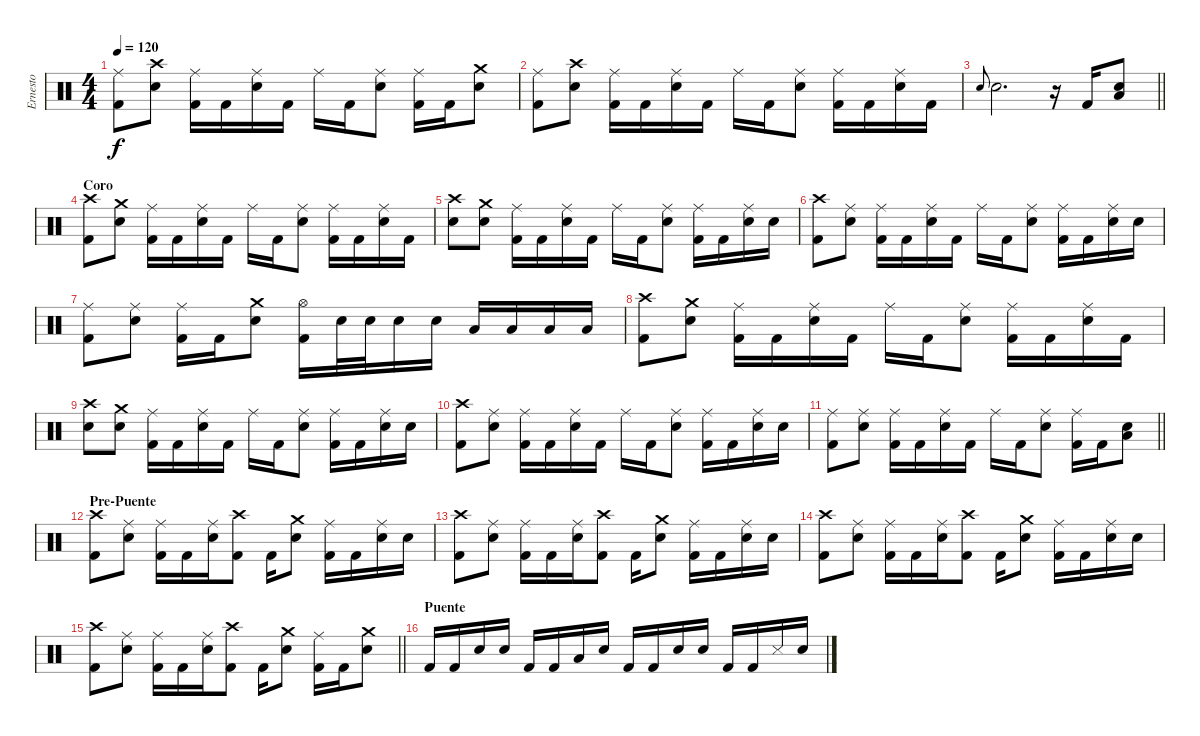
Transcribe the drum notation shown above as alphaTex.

\track ("Ernesto" "Ernesto") {instrument percussion}
\staff
\articulation defaults
\ts (4 4)
\tempo 120
\clef neutral
\ks c
("Ride (middle)" "Kick (hit) 2").8{dy f} ("Crash high (hit)" "Electric Snare (hit)").8 ("Ride (middle)" "Kick (hit) 2").16 "Kick (hit) 2".16 ("Ride (middle)" "Electric Snare (hit)").16 "Kick (hit) 2".16 "Ride (middle)".16 "Kick (hit) 2".16 ("Ride (middle)" "Electric Snare (hit)").8 ("Ride (middle)" "Kick (hit) 2").16 "Kick (hit) 2".16 ("Crash medium (hit)" "Electric Snare (hit)").8 |
("Ride (middle)" "Kick (hit) 2").8 ("Crash high (hit)" "Electric Snare (hit)").8 ("Ride (middle)" "Kick (hit) 2").16 "Kick (hit) 2".16 ("Ride (middle)" "Electric Snare (hit)").16 "Kick (hit) 2".16 "Ride (middle)".16 "Kick (hit) 2".16 ("Ride (middle)" "Electric Snare (hit)").8 ("Ride (middle)" "Kick (hit) 2").16 "Kick (hit) 2".16 ("Ride (middle)" "Electric Snare (hit)").16 "Kick (hit) 2".16 |
\barLineRight lightlight "Electric Snare (hit)".8{gr onbeat} "Electric Snare (hit)".2{d}
r.16 "Kick (hit) 2".16 ("Electric Snare (hit)" "Low Floor Tom (hit)").8 |
\section ("" "Coro")
("Crash high (hit)" "Kick (hit) 2").8 ("Crash medium (hit)" "Electric Snare (hit)").8 ("Ride (middle)" "Kick (hit) 2").16 "Kick (hit) 2".16 ("Ride (middle)" "Electric Snare (hit)").16 "Kick (hit) 2".16 "Ride (middle)".16 "Kick (hit) 2".16 ("Ride (middle)" "Electric Snare (hit)").8 ("Ride (middle)" "Kick (hit) 2").16 "Kick (hit) 2".16 ("Ride (middle)" "Electric Snare (hit)").16 "Kick (hit) 2".16 |
("Crash high (hit)" "Electric Snare (hit)").8 ("Crash medium (hit)" "Electric Snare (hit)").8 ("Ride (middle)" "Kick (hit) 2").16 "Kick (hit) 2".16 ("Ride (middle)" "Electric Snare (hit)").16 "Kick (hit) 2".16 "Ride (middle)".16 "Kick (hit) 2".16 ("Ride (middle)" "Electric Snare (hit)").8 ("Ride (middle)" "Kick (hit) 2").16 "Kick (hit) 2".16 ("Ride (middle)" "Electric Snare (hit)").16 "Electric Snare (hit)".16 |
("Crash high (hit)" "Kick (hit) 2").8 ("Ride (middle)" "Electric Snare (hit)").8 ("Ride (middle)" "Kick (hit) 2").16 "Kick (hit) 2".16 ("Ride (middle)" "Electric Snare (hit)").16 "Kick (hit) 2".16 "Ride (middle)".16 "Kick (hit) 2".16 ("Ride (middle)" "Electric Snare (hit)").8 ("Ride (middle)" "Kick (hit) 2").16 "Kick (hit) 2".16 ("Ride (middle)" "Electric Snare (hit)").16 "Electric Snare (hit)".16 |
("Ride (middle)" "Kick (hit) 2").8 ("Ride (middle)" "Electric Snare (hit)").8 ("Ride (middle)" "Kick (hit) 2").16 "Kick (hit) 2".16 ("Crash medium (hit)" "Electric Snare (hit)").8 ("Hi-Hat (open)" "Kick (hit) 2").16 "Electric Snare (hit)".32 "Electric Snare (hit)".32 "Electric Snare (hit)".16 "Electric Snare (hit)".16 "Low Tom (hit)".16 "Low Tom (hit)".16 "Low Floor Tom (hit)".16 "Low Floor Tom (hit)".16 |
("Crash high (hit)" "Kick (hit) 2").8 ("Crash medium (hit)" "Electric Snare (hit)").8 ("Ride (middle)" "Kick (hit) 2").16 "Kick (hit) 2".16 ("Ride (middle)" "Electric Snare (hit)").16 "Kick (hit) 2".16 "Ride (middle)".16 "Kick (hit) 2".16 ("Ride (middle)" "Electric Snare (hit)").8 ("Ride (middle)" "Kick (hit) 2").16 "Kick (hit) 2".16 ("Ride (middle)" "Electric Snare (hit)").16 "Kick (hit) 2".16 |
("Crash high (hit)" "Electric Snare (hit)").8 ("Crash medium (hit)" "Electric Snare (hit)").8 ("Ride (middle)" "Kick (hit) 2").16 "Kick (hit) 2".16 ("Ride (middle)" "Electric Snare (hit)").16 "Kick (hit) 2".16 "Ride (middle)".16 "Kick (hit) 2".16 ("Ride (middle)" "Electric Snare (hit)").8 ("Ride (middle)" "Kick (hit) 2").16 "Kick (hit) 2".16 ("Ride (middle)" "Electric Snare (hit)").16 "Electric Snare (hit)".16 |
("Crash high (hit)" "Kick (hit) 2").8 ("Ride (middle)" "Electric Snare (hit)").8 ("Ride (middle)" "Kick (hit) 2").16 "Kick (hit) 2".16 ("Ride (middle)" "Electric Snare (hit)").16 "Kick (hit) 2".16 "Ride (middle)".16 "Kick (hit) 2".16 ("Ride (middle)" "Electric Snare (hit)").8 ("Ride (middle)" "Kick (hit) 2").16 "Kick (hit) 2".16 ("Ride (middle)" "Electric Snare (hit)").16 "Electric Snare (hit)".16 |
\barLineRight lightlight
("Ride (middle)" "Kick (hit) 2").8 ("Ride (middle)" "Electric Snare (hit)").8 ("Ride (middle)" "Kick (hit) 2").16 "Kick (hit) 2".16 ("Ride (middle)" "Electric Snare (hit)").16 "Kick (hit) 2".16 "Ride (middle)".16 "Kick (hit) 2".16 ("Ride (middle)" "Electric Snare (hit)").8 ("Ride (middle)" "Kick (hit) 2").16 "Kick (hit) 2".16 ("Electric Snare (hit)" "Low Floor Tom (hit)").8 |
\section ("" "Pre-Puente")
("Crash high (hit)" "Kick (hit) 2").8 ("Ride (middle)" "Electric Snare (hit)").8 ("Ride (middle)" "Kick (hit) 2").16 "Kick (hit) 2".16 ("Ride (middle)" "Electric Snare (hit)").16 ("Crash high (hit)" "Kick (hit) 2").8 "Kick (hit) 2".16 ("Crash medium (hit)" "Electric Snare (hit)").8 ("Ride (middle)" "Kick (hit) 2").16 "Kick (hit) 2".16 ("Ride (middle)" "Electric Snare (hit)").16 "Electric Snare (hit)".16 |
("Crash high (hit)" "Kick (hit) 2").8 ("Ride (middle)" "Electric Snare (hit)").8 ("Ride (middle)" "Kick (hit) 2").16 "Kick (hit) 2".16 ("Ride (middle)" "Electric Snare (hit)").16 ("Crash high (hit)" "Kick (hit) 2").8 "Kick (hit) 2".16 ("Crash medium (hit)" "Electric Snare (hit)").8 ("Ride (middle)" "Kick (hit) 2").16 "Kick (hit) 2".16 ("Ride (middle)" "Electric Snare (hit)").16 "Electric Snare (hit)".16 |
("Crash high (hit)" "Kick (hit) 2").8 ("Ride (middle)" "Electric Snare (hit)").8 ("Ride (middle)" "Kick (hit) 2").16 "Kick (hit) 2".16 ("Ride (middle)" "Electric Snare (hit)").16 ("Crash high (hit)" "Kick (hit) 2").8 "Kick (hit) 2".16 ("Crash medium (hit)" "Electric Snare (hit)").8 ("Ride (middle)" "Kick (hit) 2").16 "Kick (hit) 2".16 ("Ride (middle)" "Electric Snare (hit)").16 "Electric Snare (hit)".16 |
\barLineRight lightlight
("Crash high (hit)" "Kick (hit) 2").8 ("Ride (middle)" "Electric Snare (hit)").8 ("Ride (middle)" "Kick (hit) 2").16 "Kick (hit) 2".16 ("Ride (middle)" "Electric Snare (hit)").16 ("Crash high (hit)" "Kick (hit) 2").8 "Kick (hit) 2".16 ("Crash medium (hit)" "Electric Snare (hit)").8 ("Ride (middle)" "Kick (hit) 2").16 "Kick (hit) 2".16 ("Crash medium (hit)" "Electric Snare (hit)").8 |
\section ("" "Puente")
"Kick (hit) 2".16 "Kick (hit) 2".16 "Electric Snare (hit)".16 "Electric Snare (hit)".16 "Kick (hit) 2".16 "Kick (hit) 2".16 "Low Tom (hit)".16 "Electric Snare (hit)".16 "Kick (hit) 2".16 "Kick (hit) 2".16 "Electric Snare (hit)".16 "Electric Snare (hit)".16 "Kick (hit) 2".16 "Kick (hit) 2".16 "Snare (side stick) 3".16 "Electric Snare (hit)".16
